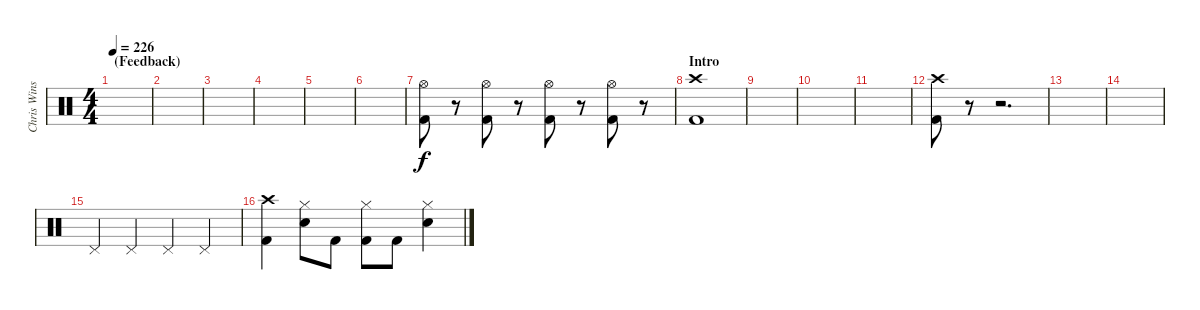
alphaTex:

\track ("Chris Winship (Drums)" "Chris Wins") {instrument percussion}
\staff {score}
\articulation defaults
\ts (4 4)
\section ("" "(Feedback)")
\tempo 226
\clef neutral
\ks c
|
|
|
|
|
|
("Hi-Hat (open)" "Kick (hit) 2").8 r.8 ("Hi-Hat (open)" "Kick (hit) 2").8 r.8 ("Hi-Hat (open)" "Kick (hit) 2").8 r.8 ("Hi-Hat (open)" "Kick (hit) 2").8 r.8 |
\section ("" "Intro")
("Crash high (hit)" "Kick (hit) 2").1 |
|
|
|
("Crash high (hit)" "Kick (hit) 2").8 r.8 r.2{d} |
|
|
"Pedal Hi-Hat (hit)".4 "Pedal Hi-Hat (hit)".4 "Pedal Hi-Hat (hit)".4 "Pedal Hi-Hat (hit)".4 |
("Crash high (hit)" "Kick (hit) 2").4 ("Hi-Hat (closed)" "Electric Snare (hit)").8 "Kick (hit) 2".8 ("Hi-Hat (closed)" "Kick (hit) 2").8 "Kick (hit) 2".8 ("Hi-Hat (closed)" "Electric Snare (hit)").4
